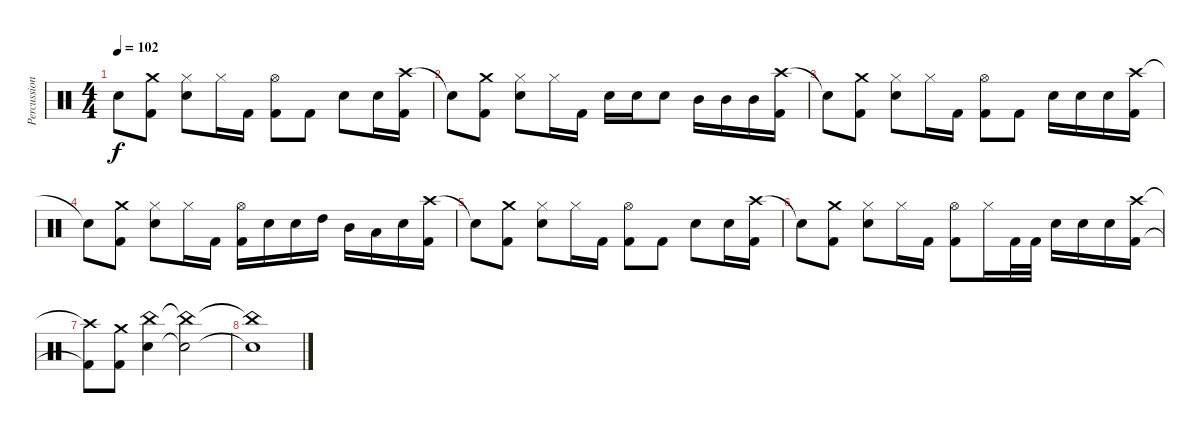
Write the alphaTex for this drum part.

\track ("Percussion" "Percussion") {instrument percussion}
\staff {score}
\articulation defaults
\ts (4 4)
\tempo 102
\clef neutral
\ks c "Snare (hit)"{t}.8{dy f}
("Crash medium (hit)" "Kick (hit) 2").8 ("Hi-Hat (closed)" "Snare (hit) 2").8 "Hi-Hat (closed)".16 "Kick (hit) 2".16 ("Hi-Hat (open)" "Kick (hit) 2").8 "Kick (hit) 2".8 "Snare (hit) 2".8 "Snare (hit) 2".16 ("Crash high (hit)" "Kick (hit) 2").16 |
"Snare (hit)"{t}.8 ("Crash medium (hit)" "Kick (hit) 2").8 ("Hi-Hat (closed)" "Snare (hit) 2").8 "Hi-Hat (closed)".16 "Kick (hit) 2".16 "Snare (hit) 2".16 "Snare (hit) 2".16 "Snare (hit) 2".8 "Mid Tom (hit)".16 "Mid Tom (hit)".16 "Mid Tom (hit)".16 ("Crash high (hit)" "Kick (hit) 2").16 |
"Snare (hit)"{t}.8 ("Crash medium (hit)" "Kick (hit) 2").8 ("Hi-Hat (closed)" "Snare (hit) 2").8 "Hi-Hat (closed)".16 "Kick (hit) 2".16 ("Hi-Hat (open)" "Kick (hit) 2").8 "Kick (hit) 2".8 "Snare (hit) 2".16 "Snare (hit) 2".16 "Snare (hit) 2".16 ("Crash high (hit)" "Kick (hit) 2").16 |
"Snare (hit)"{t}.8 ("Crash medium (hit)" "Kick (hit) 2").8 ("Hi-Hat (closed)" "Snare (hit) 2").8 "Hi-Hat (closed)".16 "Kick (hit) 2".16 ("Hi-Hat (open)" "Kick (hit) 2").16 "Snare (hit) 2".16 "Snare (hit) 2".16 "High Tom (hit)".16 "Mid Tom (hit)".16 "Low Tom (hit)".16 "Snare (hit) 2".16 ("Crash high (hit)" "Kick (hit) 2").16 |
"Snare (hit)"{t}.8 ("Crash medium (hit)" "Kick (hit) 2").8 ("Hi-Hat (closed)" "Snare (hit) 2").8 "Hi-Hat (closed)".16 "Kick (hit) 2".16 ("Hi-Hat (open)" "Kick (hit) 2").8 "Kick (hit) 2".8 "Snare (hit) 2".8 "Snare (hit) 2".16 ("Crash high (hit)" "Kick (hit) 2").16 |
"Snare (hit)"{t}.8 ("Crash medium (hit)" "Kick (hit) 2").8 ("Hi-Hat (closed)" "Snare (hit) 2").8 "Hi-Hat (closed)".16 "Kick (hit) 2".16 ("Hi-Hat (open)" "Kick (hit) 2").8 "Hi-Hat (closed)".16 "Kick (hit) 2".32 "Kick (hit) 2".32 "Snare (hit) 2".16 "Snare (hit) 2".16 "Snare (hit) 2".16 ("Crash high (hit)" "Kick (hit) 2").16 |
("Crash high (hit)"{t} "Kick (hit) 2"{t}).8 ("Crash medium (hit)" "Kick (hit) 2").8 ("China (hit)" "Snare (hit) 2").4 ("China (hit)"{t} "Snare (hit) 2"{t}).2 |
("China (hit)"{t} "Snare (hit) 2"{t}).1
